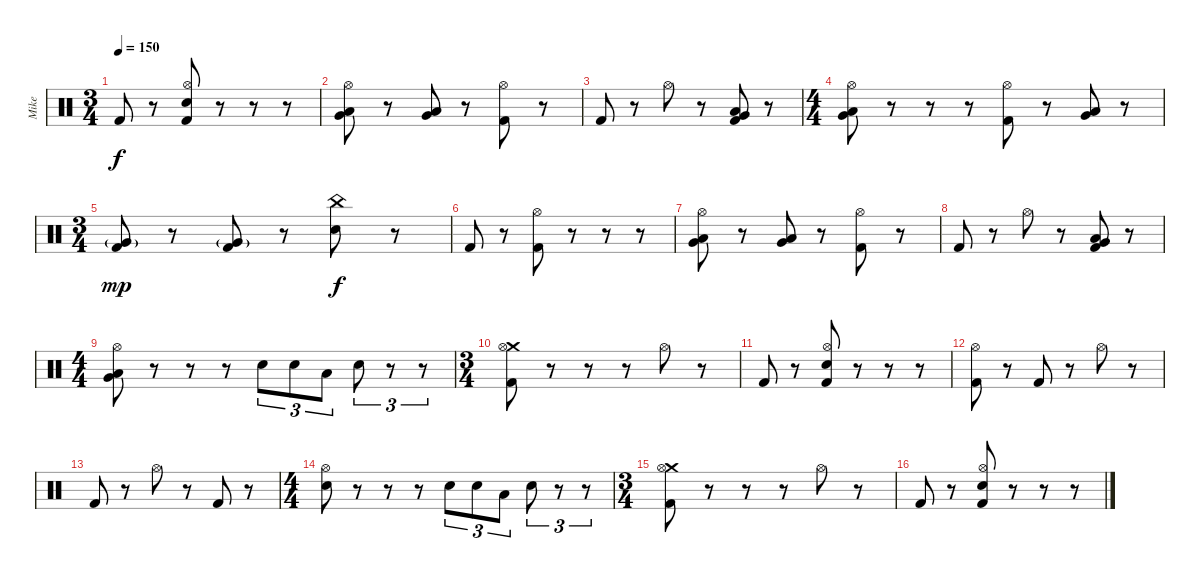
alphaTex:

\track ("Mike" "Mike") {instrument percussion}
\staff {score}
\articulation defaults
\ts (3 4)
\tempo 150
\clef neutral
\ks c "Kick (hit) 2".8{dy f}
r.8 ("Hi-Hat (open)" "Electric Snare (hit)" "Kick (hit) 2").8 r.8 r.8 r.8 |
("Hi-Hat (open)" "Very Low Tom (hit)" "Low Tom (hit)").8 r.8 ("Very Low Tom (hit)" "Low Tom (hit)").8 r.8 ("Hi-Hat (open)" "Kick (hit) 2").8 r.8 |
"Kick (hit) 2".8 r.8 "Hi-Hat (open)".8 r.8 ("Low Tom (hit)" "Very Low Tom (hit)" "Kick (hit) 2").8 r.8 |
\ts (4 4)
("Hi-Hat (open)" "Low Tom (hit)" "Very Low Tom (hit)").8 r.8 r.8 r.8 ("Hi-Hat (open)" "Kick (hit) 2").8 r.8 ("Very Low Tom (hit)" "Low Tom (hit)").8 r.8 |
\ts (3 4)
("Very Low Tom (hit)"{g} "Kick (hit) 2").8{dy mp} r.8 ("Very Low Tom (hit)"{g} "Kick (hit) 2").8 r.8 ("China (hit)" "Electric Snare (hit)").8{dy f} r.8 |
"Kick (hit) 2".8 r.8 ("Hi-Hat (open)" "Kick (hit) 2").8 r.8 r.8 r.8 |
("Hi-Hat (open)" "Very Low Tom (hit)" "Low Tom (hit)").8 r.8 ("Very Low Tom (hit)" "Low Tom (hit)").8 r.8 ("Hi-Hat (open)" "Kick (hit) 2").8 r.8 |
"Kick (hit) 2".8 r.8 "Hi-Hat (open)".8 r.8 ("Low Tom (hit)" "Very Low Tom (hit)" "Kick (hit) 2").8 r.8 |
\ts (4 4)
("Hi-Hat (open)" "Low Tom (hit)" "Very Low Tom (hit)").8 r.8 r.8 r.8 "Electric Snare (hit)".8{tu (3 2)} "Electric Snare (hit)".8{tu (3 2)} "Low Tom (hit)".8{tu (3 2)} "Electric Snare (hit)".8{tu (3 2)} r.8{tu (3 2)} r.8{tu (3 2)} |
\ts (3 4)
("Crash medium (hit)" "Hi-Hat (open)" "Kick (hit) 2").8 r.8 r.8 r.8 "Hi-Hat (open)".8 r.8 |
"Kick (hit) 2".8 r.8 ("Hi-Hat (open)" "Electric Snare (hit)" "Kick (hit) 2").8 r.8 r.8 r.8 |
("Hi-Hat (open)" "Kick (hit) 2").8 r.8 "Kick (hit) 2".8 r.8 "Hi-Hat (open)".8 r.8 |
"Kick (hit) 2".8 r.8 "Hi-Hat (open)".8 r.8 "Kick (hit) 2".8 r.8 |
\ts (4 4)
("Hi-Hat (open)" "Electric Snare (hit)").8 r.8 r.8 r.8 "Electric Snare (hit)".8{tu (3 2)} "Electric Snare (hit)".8{tu (3 2)} "Low Tom (hit)".8{tu (3 2)} "Electric Snare (hit)".8{tu (3 2)} r.8{tu (3 2)} r.8{tu (3 2)} |
\ts (3 4)
("Crash medium (hit)" "Hi-Hat (open)" "Kick (hit) 2").8 r.8 r.8 r.8 "Hi-Hat (open)".8 r.8 |
"Kick (hit) 2".8 r.8 ("Hi-Hat (open)" "Electric Snare (hit)" "Kick (hit) 2").8 r.8 r.8 r.8
